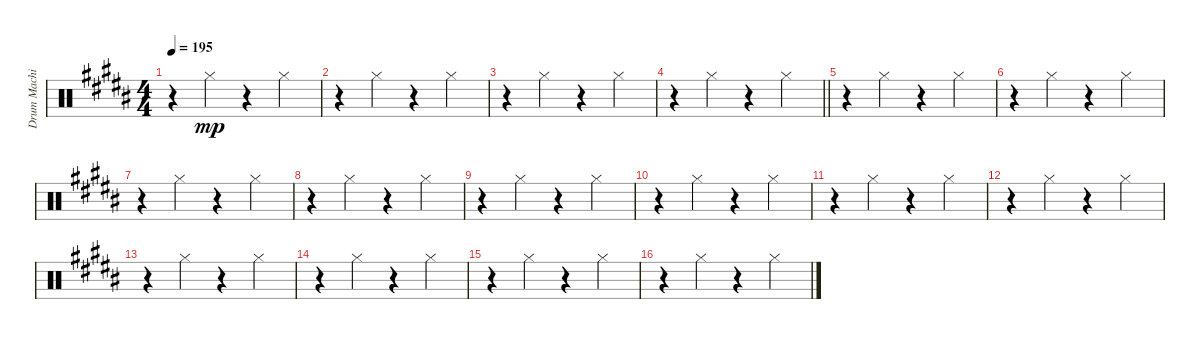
\track ("Drum Machine" "Drum Machi") {instrument percussion}
\staff {score}
\articulation defaults
\ts (4 4)
\tempo 195
\clef neutral
\ks b
r.4{dy mp} "Hi-Hat (closed)".4 r.4 "Hi-Hat (closed)".4 |
r.4 "Hi-Hat (closed)".4 r.4 "Hi-Hat (closed)".4 |
r.4 "Hi-Hat (closed)".4 r.4 "Hi-Hat (closed)".4 |
\barLineRight lightlight
r.4 "Hi-Hat (closed)".4 r.4 "Hi-Hat (closed)".4 |
r.4 "Hi-Hat (closed)".4 r.4 "Hi-Hat (closed)".4 |
r.4 "Hi-Hat (closed)".4 r.4 "Hi-Hat (closed)".4 |
r.4 "Hi-Hat (closed)".4 r.4 "Hi-Hat (closed)".4 |
r.4 "Hi-Hat (closed)".4 r.4 "Hi-Hat (closed)".4 |
r.4 "Hi-Hat (closed)".4 r.4 "Hi-Hat (closed)".4 |
r.4 "Hi-Hat (closed)".4 r.4 "Hi-Hat (closed)".4 |
r.4 "Hi-Hat (closed)".4 r.4 "Hi-Hat (closed)".4 |
r.4 "Hi-Hat (closed)".4 r.4 "Hi-Hat (closed)".4 |
r.4 "Hi-Hat (closed)".4 r.4 "Hi-Hat (closed)".4 |
r.4 "Hi-Hat (closed)".4 r.4 "Hi-Hat (closed)".4 |
r.4 "Hi-Hat (closed)".4 r.4 "Hi-Hat (closed)".4 |
r.4 "Hi-Hat (closed)".4 r.4 "Hi-Hat (closed)".4
